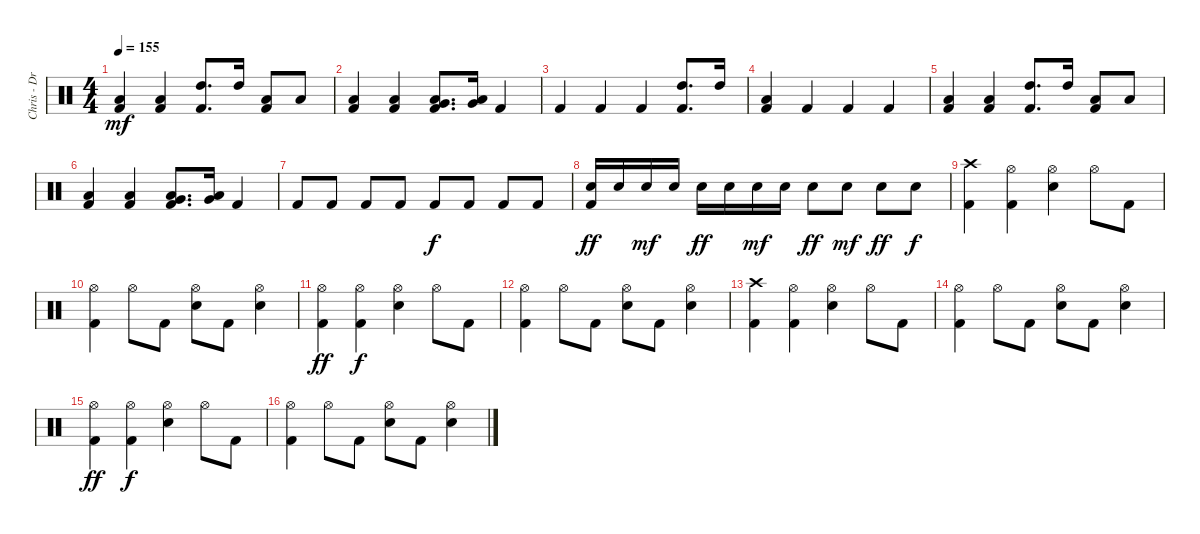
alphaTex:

\track ("Chris - Drums" "Chris - Dr") {instrument percussion}
\staff {score}
\articulation defaults
\ts (4 4)
\tempo 155
\clef neutral
\ks c
("Low Tom (hit)" "Kick (hit) 2").4{dy mf} ("Low Tom (hit)" "Kick (hit) 2").4 ("High Tom (hit)" "Kick (hit) 2").8{d} "High Tom (hit)".16 ("Low Tom (hit)" "Kick (hit) 2").8 "Low Tom (hit)".8 |
("Low Tom (hit)" "Kick (hit) 2").4 ("Low Tom (hit)" "Kick (hit) 2").4 ("Low Tom (hit)" "Very Low Tom (hit)" "Kick (hit) 2").8{d} ("Low Tom (hit)" "Very Low Tom (hit)").16 "Kick (hit) 2".4 |
"Kick (hit) 2".4 "Kick (hit) 2".4 "Kick (hit) 2".4 ("High Tom (hit)" "Kick (hit) 2").8{d} "High Tom (hit)".16 |
("Low Tom (hit)" "Kick (hit) 2").4 "Kick (hit) 2".4 "Kick (hit) 2".4 "Kick (hit) 2".4 |
("Low Tom (hit)" "Kick (hit) 2").4 ("Low Tom (hit)" "Kick (hit) 2").4 ("High Tom (hit)" "Kick (hit) 2").8{d} "High Tom (hit)".16 ("Low Tom (hit)" "Kick (hit) 2").8 "Low Tom (hit)".8 |
("Low Tom (hit)" "Kick (hit) 2").4 ("Low Tom (hit)" "Kick (hit) 2").4 ("Low Tom (hit)" "Very Low Tom (hit)" "Kick (hit) 2").8{d} ("Low Tom (hit)" "Very Low Tom (hit)").16 "Kick (hit) 2".4 |
"Kick (hit) 2".8 "Kick (hit) 2".8 "Kick (hit) 2".8 "Kick (hit) 2".8 "Kick (hit) 2".8{dy f} "Kick (hit) 2".8 "Kick (hit) 2".8 "Kick (hit) 2".8 |
("Electric Snare (hit)" "Kick (hit) 2").16{dy ff} "Electric Snare (hit)".16 "Electric Snare (hit)".16{dy mf} "Electric Snare (hit)".16 "Electric Snare (hit)".16{dy ff} "Electric Snare (hit)".16 "Electric Snare (hit)".16{dy mf} "Electric Snare (hit)".16 "Electric Snare (hit)".8{dy ff} "Electric Snare (hit)".8{dy mf} "Electric Snare (hit)".8{dy ff} "Electric Snare (hit)".8{dy f} |
("Crash high (hit)" "Kick (hit) 2").4 ("Hi-Hat (open)" "Kick (hit) 2").4 ("Hi-Hat (open)" "Electric Snare (hit)").4 "Hi-Hat (open)".8 "Kick (hit) 2".8 |
("Hi-Hat (open)" "Kick (hit) 2").4 "Hi-Hat (open)".8 "Kick (hit) 2".8 ("Hi-Hat (open)" "Electric Snare (hit)").8 "Kick (hit) 2".8 ("Hi-Hat (open)" "Electric Snare (hit)").4 |
("Hi-Hat (open)" "Kick (hit) 2").4{dy ff} ("Hi-Hat (open)" "Kick (hit) 2").4{dy f} ("Hi-Hat (open)" "Electric Snare (hit)").4 "Hi-Hat (open)".8 "Kick (hit) 2".8 |
("Hi-Hat (open)" "Kick (hit) 2").4 "Hi-Hat (open)".8 "Kick (hit) 2".8 ("Hi-Hat (open)" "Electric Snare (hit)").8 "Kick (hit) 2".8 ("Hi-Hat (open)" "Electric Snare (hit)").4 |
("Crash high (hit)" "Kick (hit) 2").4 ("Hi-Hat (open)" "Kick (hit) 2").4 ("Hi-Hat (open)" "Electric Snare (hit)").4 "Hi-Hat (open)".8 "Kick (hit) 2".8 |
("Hi-Hat (open)" "Kick (hit) 2").4 "Hi-Hat (open)".8 "Kick (hit) 2".8 ("Hi-Hat (open)" "Electric Snare (hit)").8 "Kick (hit) 2".8 ("Hi-Hat (open)" "Electric Snare (hit)").4 |
("Hi-Hat (open)" "Kick (hit) 2").4{dy ff} ("Hi-Hat (open)" "Kick (hit) 2").4{dy f} ("Hi-Hat (open)" "Electric Snare (hit)").4 "Hi-Hat (open)".8 "Kick (hit) 2".8 |
("Hi-Hat (open)" "Kick (hit) 2").4 "Hi-Hat (open)".8 "Kick (hit) 2".8 ("Hi-Hat (open)" "Electric Snare (hit)").8 "Kick (hit) 2".8 ("Hi-Hat (open)" "Electric Snare (hit)").4
